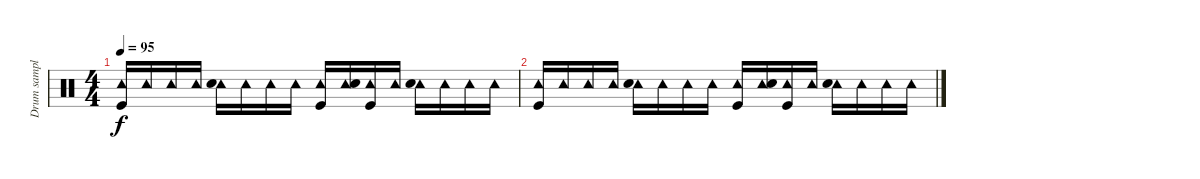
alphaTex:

\track ("Drum sample" "Drum sampl") {instrument percussion}
\staff {score}
\articulation defaults
\ts (4 4)
\tempo 95
\clef neutral
\ks c
("Tambourine (hit)" "Kick (hit)").16{dy f} "Tambourine (hit)".16 "Tambourine (hit)".16 "Tambourine (hit)".16 ("Tambourine (hit)" "Electric Snare (hit)").16 "Tambourine (hit)".16 "Tambourine (hit)".16 "Tambourine (hit)".16 ("Tambourine (hit)" "Kick (hit)").16 ("Tambourine (hit)" "Electric Snare (hit)").16 ("Tambourine (hit)" "Kick (hit)").16 "Tambourine (hit)".16 ("Tambourine (hit)" "Electric Snare (hit)").16 "Tambourine (hit)".16 "Tambourine (hit)".16 "Tambourine (hit)".16 |
("Tambourine (hit)" "Kick (hit)").16 "Tambourine (hit)".16 "Tambourine (hit)".16 "Tambourine (hit)".16 ("Tambourine (hit)" "Electric Snare (hit)").16 "Tambourine (hit)".16 "Tambourine (hit)".16 "Tambourine (hit)".16 ("Tambourine (hit)" "Kick (hit)").16 ("Tambourine (hit)" "Electric Snare (hit)").16 ("Tambourine (hit)" "Kick (hit)").16 "Tambourine (hit)".16 ("Tambourine (hit)" "Electric Snare (hit)").16 "Tambourine (hit)".16 "Tambourine (hit)".16 "Tambourine (hit)".16
